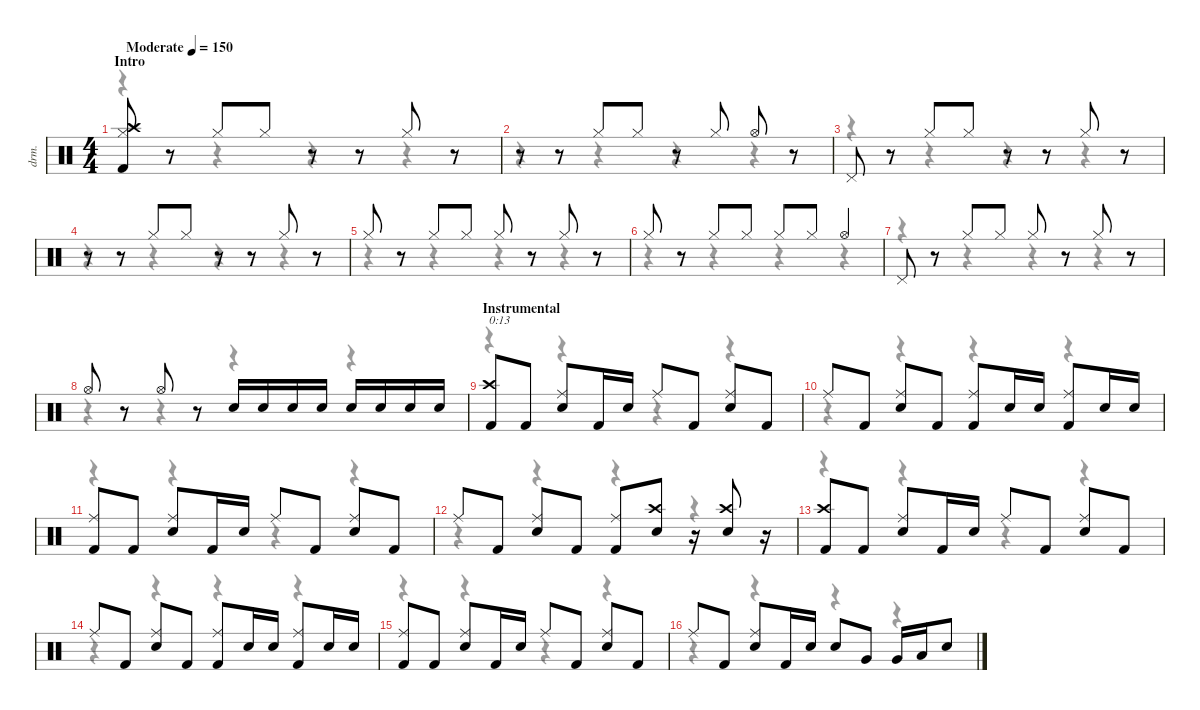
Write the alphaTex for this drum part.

\defaultSystemsLayout 4
\hideDynamics
\bracketExtendMode nobrackets
\otherSystemsTrackNameOrientation horizontal
\track ("Drums" "drm.") {instrument percussion}
\staff {score}
\articulation defaults
\voice
\ts (4 4)
\beaming (8 2 2 2 2)
\section ("" "Intro")
\tempo (150 "Moderate")
\clef neutral
\ks c
("Hi-Hat (closed)" "Crash high (hit)" "Kick (hit) 2").8{dy fff beam Up} r.8{beam Up} "Hi-Hat (closed)".8{beam Up} "Hi-Hat (closed)".8{beam Up} r.8{beam Up} r.8{beam Up} "Hi-Hat (closed)".8{beam Up} r.8{beam Up} |
r.8{beam Up} r.8{beam Up} "Hi-Hat (closed)".8{beam Up} "Hi-Hat (closed)".8{beam Up} r.8{beam Up} "Hi-Hat (closed)".8{beam Up} "Hi-Hat (open)".8{beam Up} r.8{beam Up} |
"Pedal Hi-Hat (hit)".8{beam Up} r.8{beam Up} "Hi-Hat (closed)".8{beam Up} "Hi-Hat (closed)".8{beam Up} r.8{beam Up} r.8{beam Up} "Hi-Hat (closed)".8{beam Up} r.8{beam Up} |
r.8{beam Up} r.8{beam Up} "Hi-Hat (closed)".8{beam Up} "Hi-Hat (closed)".8{beam Up} r.8{beam Up} r.8{beam Up} "Hi-Hat (closed)".8{beam Up} r.8{beam Up} |
"Hi-Hat (closed)".8{beam Up} r.8{beam Up} "Hi-Hat (closed)".8{beam Up} "Hi-Hat (closed)".8{beam Up} "Hi-Hat (closed)".8{beam Up} r.8{beam Up} "Hi-Hat (closed)".8{beam Up} r.8{beam Up} |
"Hi-Hat (closed)".8{beam Up} r.8{beam Up} "Hi-Hat (closed)".8{beam Up} "Hi-Hat (closed)".8{beam Up} "Hi-Hat (closed)".8{beam Up} "Hi-Hat (closed)".8{beam Up} "Hi-Hat (open)".4{beam Up} |
"Pedal Hi-Hat (hit)".8{beam Up} r.8{beam Up} "Hi-Hat (closed)".8{beam Up} "Hi-Hat (closed)".8{beam Up} "Hi-Hat (closed)".8{beam Up} r.8{beam Up} "Hi-Hat (closed)".8{beam Up} r.8{beam Up} |
"Hi-Hat (open)".8{beam Up} r.8{beam Up} "Hi-Hat (open)".8{beam Up} r.8{beam Up} "Snare (hit) 2".16{beam Up} "Snare (hit) 2".16{beam Up} "Snare (hit) 2".16{beam Up} "Snare (hit) 2".16{beam Up} "Snare (hit) 2".16{beam Up} "Snare (hit) 2".16{beam Up} "Snare (hit) 2".16{beam Up} "Snare (hit) 2".16{beam Up} |
\section ("" "Instrumental")
("Crash high (hit)" "Kick (hit) 2").8{txt "0:13" beam Up} "Kick (hit) 2".8{beam Up} ("Ride (middle)" "Snare (hit) 2").8{beam Up} "Kick (hit) 2".16{beam Up} "Snare (hit) 2".16{beam Up} "Ride (middle)".8{beam Up} "Kick (hit) 2".8{beam Up} ("Ride (middle)" "Snare (hit) 2").8{beam Up} "Kick (hit) 2".8{beam Up} |
"Ride (middle)".8{beam Up} "Kick (hit) 2".8{beam Up} ("Ride (middle)" "Snare (hit) 2").8{beam Up} "Kick (hit) 2".8{beam Up} ("Ride (middle)" "Kick (hit) 2").8{beam Up} "Snare (hit) 2".16{beam Up} "Snare (hit) 2".16{beam Up} ("Ride (middle)" "Kick (hit) 2").8{beam Up} "Snare (hit) 2".16{beam Up} "Snare (hit) 2".16{beam Up} |
("Ride (middle)" "Kick (hit) 2").8{beam Up} "Kick (hit) 2".8{beam Up} ("Ride (middle)" "Snare (hit) 2").8{beam Up} "Kick (hit) 2".16{beam Up} "Snare (hit) 2".16{beam Up} "Ride (middle)".8{beam Up} "Kick (hit) 2".8{beam Up} ("Ride (middle)" "Snare (hit) 2").8{beam Up} "Kick (hit) 2".8{beam Up} |
"Ride (middle)".8{beam Up} "Kick (hit) 2".8{beam Up} ("Ride (middle)" "Snare (hit) 2").8{beam Up} "Kick (hit) 2".8{beam Up} ("Ride (middle)" "Kick (hit) 2").8{beam Up} ("Crash high (hit)" "Snare (hit) 2").8{beam Up} r.16{beam Up} ("Crash high (hit)" "Snare (hit) 2").8{beam Up} r.16{beam Up} |
("Crash high (hit)" "Kick (hit) 2").8{beam Up} "Kick (hit) 2".8{beam Up} ("Ride (middle)" "Snare (hit) 2").8{dy f beam Up} "Kick (hit) 2".16{dy fff beam Up} "Snare (hit) 2".16{beam Up} "Ride (middle)".8{dy f beam Up} "Kick (hit) 2".8{dy fff beam Up} ("Ride (middle)" "Snare (hit) 2").8{dy f beam Up} "Kick (hit) 2".8{dy fff beam Up} |
"Ride (middle)".8{dy f beam Up} "Kick (hit) 2".8{dy fff beam Up} ("Ride (middle)" "Snare (hit) 2").8{dy f beam Up} "Kick (hit) 2".8{dy fff beam Up} ("Ride (middle)" "Kick (hit) 2").8{dy f beam Up} "Snare (hit) 2".16{dy fff beam Up} "Snare (hit) 2".16{beam Up} ("Ride (middle)" "Kick (hit) 2").8{dy f beam Up} "Snare (hit) 2".16{dy fff beam Up} "Snare (hit) 2".16{beam Up} |
("Ride (middle)" "Kick (hit) 2").8{dy f beam Up} "Kick (hit) 2".8{dy fff beam Up} ("Ride (middle)" "Snare (hit) 2").8{dy f beam Up} "Kick (hit) 2".16{dy fff beam Up} "Snare (hit) 2".16{beam Up} "Ride (middle)".8{dy f beam Up} "Kick (hit) 2".8{dy fff beam Up} ("Ride (middle)" "Snare (hit) 2").8{dy f beam Up} "Kick (hit) 2".8{dy fff beam Up} |
"Ride (middle)".8{dy f beam Up} "Kick (hit) 2".8{dy fff beam Up} ("Ride (middle)" "Snare (hit) 2").8{dy f beam Up} "Kick (hit) 2".16{dy fff beam Up} "Snare (hit) 2".16{beam Up} "Snare (hit) 2".8{beam Up} "Very Low Tom (hit)".8{beam Up} "Very Low Tom (hit)".16{beam Up} "Low Floor Tom (hit)".16{beam Up} "Snare (hit) 2".8{beam Up}
\voice
\clef neutral
\ottava regular
\simile none
\ks c
r.4{dy mf beam Down} r.4{beam Down} r.4{beam Down} r.4{beam Down} |
r.4{beam Down} r.4{beam Down} r.4{beam Down} r.4{beam Down} |
r.4{beam Down} r.4{beam Down} r.4{beam Down} r.4{beam Down} |
r.4{beam Down} r.4{beam Down} r.4{beam Down} r.4{beam Down} |
r.4{beam Down} r.4{beam Down} r.4{beam Down} r.4{beam Down} |
r.4{beam Down} r.4{beam Down} r.4{beam Down} r.4{beam Down} |
r.4{beam Down} r.4{beam Down} r.4{beam Down} r.4{beam Down} |
r.4{beam Down} r.4{beam Down} r.4{beam Down} r.4{beam Down} |
r.4{beam Down} r.4{beam Down} r.4{beam Down} r.4{beam Down} |
r.4{beam Down} r.4{beam Down} r.4{beam Down} r.4{beam Down} |
r.4{beam Down} r.4{beam Down} r.4{beam Down} r.4{beam Down} |
r.4{beam Down} r.4{beam Down} r.4{beam Down} r.4{beam Down} |
r.4{beam Down} r.4{beam Down} r.4{beam Down} r.4{beam Down} |
r.4{beam Down} r.4{beam Down} r.4{beam Down} r.4{beam Down} |
r.4{beam Down} r.4{beam Down} r.4{beam Down} r.4{beam Down} |
r.4{beam Down} r.4{beam Down} r.4{beam Down} r.4{beam Down}
